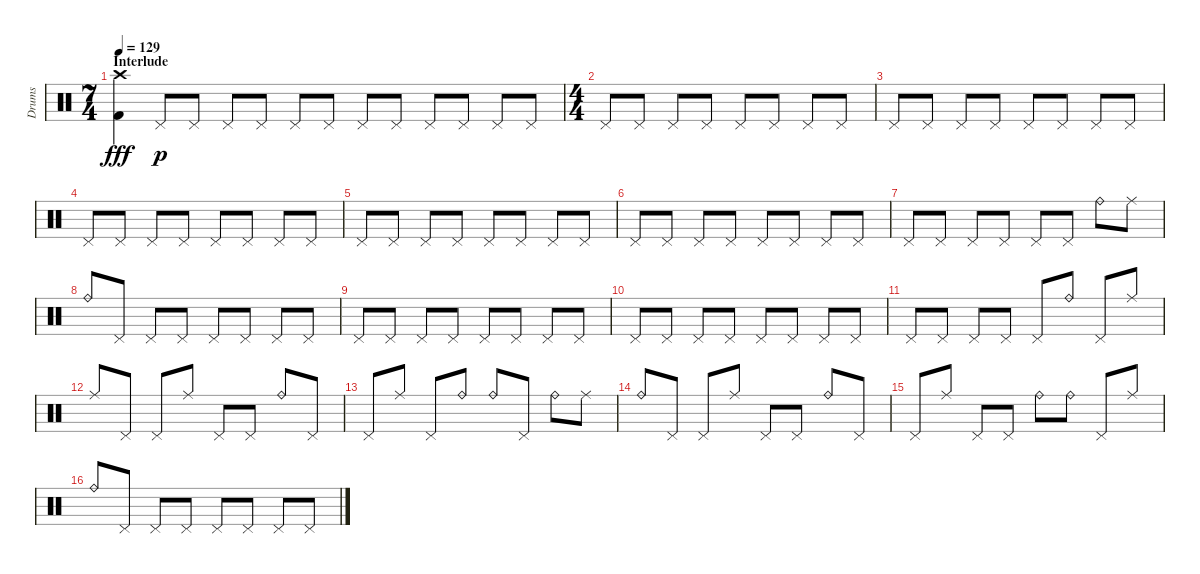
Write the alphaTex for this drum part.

\track ("Drums" "Drums") {instrument percussion}
\staff {score}
\articulation defaults
\ts (7 4)
\section ("" "Interlude")
\tempo 129
\clef neutral
\ks c
("Crash high (hit)" "Kick (hit) 2").4{dy fff} "Pedal Hi-Hat (hit)".8{dy p} "Pedal Hi-Hat (hit)".8 "Pedal Hi-Hat (hit)".8 "Pedal Hi-Hat (hit)".8 "Pedal Hi-Hat (hit)".8 "Pedal Hi-Hat (hit)".8 "Pedal Hi-Hat (hit)".8 "Pedal Hi-Hat (hit)".8 "Pedal Hi-Hat (hit)".8 "Pedal Hi-Hat (hit)".8 "Pedal Hi-Hat (hit)".8 "Pedal Hi-Hat (hit)".8 |
\ts (4 4)
"Pedal Hi-Hat (hit)".8 "Pedal Hi-Hat (hit)".8 "Pedal Hi-Hat (hit)".8 "Pedal Hi-Hat (hit)".8 "Pedal Hi-Hat (hit)".8 "Pedal Hi-Hat (hit)".8 "Pedal Hi-Hat (hit)".8 "Pedal Hi-Hat (hit)".8 |
"Pedal Hi-Hat (hit)".8 "Pedal Hi-Hat (hit)".8 "Pedal Hi-Hat (hit)".8 "Pedal Hi-Hat (hit)".8 "Pedal Hi-Hat (hit)".8 "Pedal Hi-Hat (hit)".8 "Pedal Hi-Hat (hit)".8 "Pedal Hi-Hat (hit)".8 |
"Pedal Hi-Hat (hit)".8 "Pedal Hi-Hat (hit)".8 "Pedal Hi-Hat (hit)".8 "Pedal Hi-Hat (hit)".8 "Pedal Hi-Hat (hit)".8 "Pedal Hi-Hat (hit)".8 "Pedal Hi-Hat (hit)".8 "Pedal Hi-Hat (hit)".8 |
"Pedal Hi-Hat (hit)".8 "Pedal Hi-Hat (hit)".8 "Pedal Hi-Hat (hit)".8 "Pedal Hi-Hat (hit)".8 "Pedal Hi-Hat (hit)".8 "Pedal Hi-Hat (hit)".8 "Pedal Hi-Hat (hit)".8 "Pedal Hi-Hat (hit)".8 |
"Pedal Hi-Hat (hit)".8 "Pedal Hi-Hat (hit)".8 "Pedal Hi-Hat (hit)".8 "Pedal Hi-Hat (hit)".8 "Pedal Hi-Hat (hit)".8 "Pedal Hi-Hat (hit)".8 "Pedal Hi-Hat (hit)".8 "Pedal Hi-Hat (hit)".8 |
"Pedal Hi-Hat (hit)".8 "Pedal Hi-Hat (hit)".8 "Pedal Hi-Hat (hit)".8 "Pedal Hi-Hat (hit)".8 "Pedal Hi-Hat (hit)".8 "Pedal Hi-Hat (hit)".8 "Ride (bell)".8 "Ride (middle)".8 |
"Ride (bell)".8 "Pedal Hi-Hat (hit)".8 "Pedal Hi-Hat (hit)".8 "Pedal Hi-Hat (hit)".8 "Pedal Hi-Hat (hit)".8 "Pedal Hi-Hat (hit)".8 "Pedal Hi-Hat (hit)".8 "Pedal Hi-Hat (hit)".8 |
"Pedal Hi-Hat (hit)".8 "Pedal Hi-Hat (hit)".8 "Pedal Hi-Hat (hit)".8 "Pedal Hi-Hat (hit)".8 "Pedal Hi-Hat (hit)".8 "Pedal Hi-Hat (hit)".8 "Pedal Hi-Hat (hit)".8 "Pedal Hi-Hat (hit)".8 |
"Pedal Hi-Hat (hit)".8 "Pedal Hi-Hat (hit)".8 "Pedal Hi-Hat (hit)".8 "Pedal Hi-Hat (hit)".8 "Pedal Hi-Hat (hit)".8 "Pedal Hi-Hat (hit)".8 "Pedal Hi-Hat (hit)".8 "Pedal Hi-Hat (hit)".8 |
"Pedal Hi-Hat (hit)".8 "Pedal Hi-Hat (hit)".8 "Pedal Hi-Hat (hit)".8 "Pedal Hi-Hat (hit)".8 "Pedal Hi-Hat (hit)".8 "Ride (bell)".8 "Pedal Hi-Hat (hit)".8 "Ride (middle)".8 |
"Ride (middle)".8 "Pedal Hi-Hat (hit)".8 "Pedal Hi-Hat (hit)".8 "Ride (middle)".8 "Pedal Hi-Hat (hit)".8 "Pedal Hi-Hat (hit)".8 "Ride (bell)".8 "Pedal Hi-Hat (hit)".8 |
"Pedal Hi-Hat (hit)".8 "Ride (middle)".8 "Pedal Hi-Hat (hit)".8 "Ride (bell)".8 "Ride (bell)".8 "Pedal Hi-Hat (hit)".8 "Ride (bell)".8 "Ride (middle)".8 |
"Ride (bell)".8 "Pedal Hi-Hat (hit)".8 "Pedal Hi-Hat (hit)".8 "Ride (middle)".8 "Pedal Hi-Hat (hit)".8 "Pedal Hi-Hat (hit)".8 "Ride (bell)".8 "Pedal Hi-Hat (hit)".8 |
"Pedal Hi-Hat (hit)".8 "Ride (middle)".8 "Pedal Hi-Hat (hit)".8 "Pedal Hi-Hat (hit)".8 "Ride (bell)".8 "Ride (bell)".8 "Pedal Hi-Hat (hit)".8 "Ride (middle)".8 |
"Ride (bell)".8 "Pedal Hi-Hat (hit)".8 "Pedal Hi-Hat (hit)".8 "Pedal Hi-Hat (hit)".8 "Pedal Hi-Hat (hit)".8 "Pedal Hi-Hat (hit)".8 "Pedal Hi-Hat (hit)".8 "Pedal Hi-Hat (hit)".8
